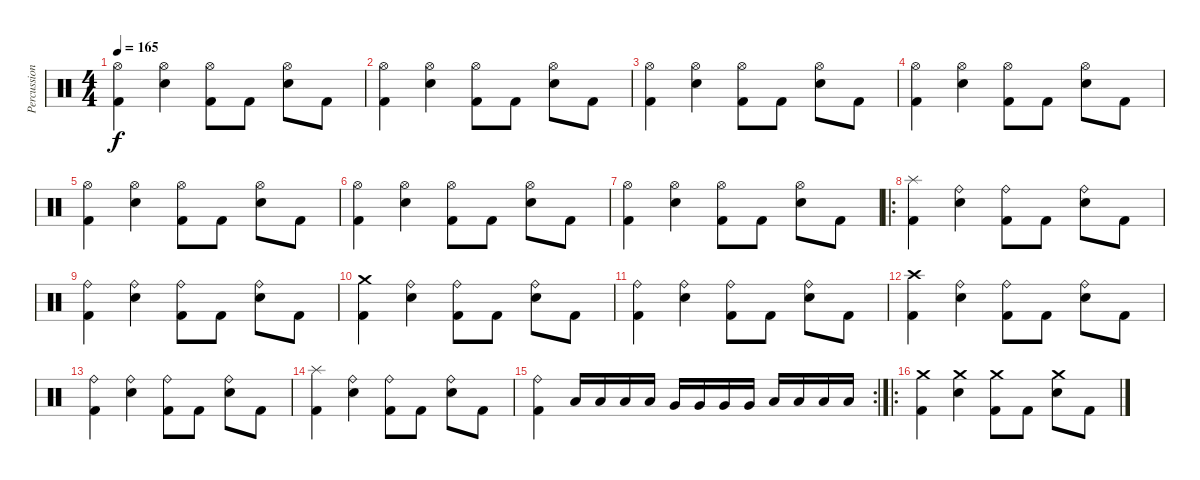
\track ("Percussions" "Percussion") {instrument percussion}
\staff {score}
\articulation defaults
\ts (4 4)
\tempo 165
\clef neutral
\ks c
("Kick (hit) 2" "Hi-Hat (open)").4{dy f} ("Snare (hit) 2" "Hi-Hat (open)").4 ("Kick (hit) 2" "Hi-Hat (open)").8 "Kick (hit) 2".8 ("Snare (hit) 2" "Hi-Hat (open)").8 "Kick (hit) 2".8 |
("Kick (hit) 2" "Hi-Hat (open)").4 ("Snare (hit) 2" "Hi-Hat (open)").4 ("Kick (hit) 2" "Hi-Hat (open)").8 "Kick (hit) 2".8 ("Snare (hit) 2" "Hi-Hat (open)").8 "Kick (hit) 2".8 |
("Kick (hit) 2" "Hi-Hat (open)").4 ("Snare (hit) 2" "Hi-Hat (open)").4 ("Kick (hit) 2" "Hi-Hat (open)").8 "Kick (hit) 2".8 ("Snare (hit) 2" "Hi-Hat (open)").8 "Kick (hit) 2".8 |
("Kick (hit) 2" "Hi-Hat (open)").4 ("Snare (hit) 2" "Hi-Hat (open)").4 ("Kick (hit) 2" "Hi-Hat (open)").8 "Kick (hit) 2".8 ("Snare (hit) 2" "Hi-Hat (open)").8 "Kick (hit) 2".8 |
("Kick (hit) 2" "Hi-Hat (open)").4 ("Snare (hit) 2" "Hi-Hat (open)").4 ("Kick (hit) 2" "Hi-Hat (open)").8 "Kick (hit) 2".8 ("Snare (hit) 2" "Hi-Hat (open)").8 "Kick (hit) 2".8 |
("Kick (hit) 2" "Hi-Hat (open)").4 ("Snare (hit) 2" "Hi-Hat (open)").4 ("Kick (hit) 2" "Hi-Hat (open)").8 "Kick (hit) 2".8 ("Snare (hit) 2" "Hi-Hat (open)").8 "Kick (hit) 2".8 |
("Kick (hit) 2" "Hi-Hat (open)").4 ("Snare (hit) 2" "Hi-Hat (open)").4 ("Kick (hit) 2" "Hi-Hat (open)").8 "Kick (hit) 2".8 ("Snare (hit) 2" "Hi-Hat (open)").8 "Kick (hit) 2".8 |
\ro
("Kick (hit) 2" "Splash (hit)").4 ("Snare (hit) 2" "Ride (bell)").4 ("Kick (hit) 2" "Ride (bell)").8 "Kick (hit) 2".8 ("Snare (hit) 2" "Ride (bell)").8 "Kick (hit) 2".8 |
("Kick (hit) 2" "Ride (bell)").4 ("Snare (hit) 2" "Ride (bell)").4 ("Kick (hit) 2" "Ride (bell)").8 "Kick (hit) 2".8 ("Snare (hit) 2" "Ride (bell)").8 "Kick (hit) 2".8 |
("Kick (hit) 2" "Crash medium (hit)").4 ("Snare (hit) 2" "Ride (bell)").4 ("Kick (hit) 2" "Ride (bell)").8 "Kick (hit) 2".8 ("Snare (hit) 2" "Ride (bell)").8 "Kick (hit) 2".8 |
("Kick (hit) 2" "Ride (bell)").4 ("Snare (hit) 2" "Ride (bell)").4 ("Kick (hit) 2" "Ride (bell)").8 "Kick (hit) 2".8 ("Snare (hit) 2" "Ride (bell)").8 "Kick (hit) 2".8 |
("Kick (hit) 2" "Crash high (hit)").4 ("Snare (hit) 2" "Ride (bell)").4 ("Kick (hit) 2" "Ride (bell)").8 "Kick (hit) 2".8 ("Snare (hit) 2" "Ride (bell)").8 "Kick (hit) 2".8 |
("Kick (hit) 2" "Ride (bell)").4 ("Snare (hit) 2" "Ride (bell)").4 ("Kick (hit) 2" "Ride (bell)").8 "Kick (hit) 2".8 ("Snare (hit) 2" "Ride (bell)").8 "Kick (hit) 2".8 |
("Kick (hit) 2" "Splash (hit)").4 ("Snare (hit) 2" "Ride (bell)").4 ("Kick (hit) 2" "Ride (bell)").8 "Kick (hit) 2".8 ("Snare (hit) 2" "Ride (bell)").8 "Kick (hit) 2".8 |
\rc 2
("Kick (hit) 2" "Ride (bell)").4 "Low Tom (hit)".16 "Low Tom (hit)".16 "Low Tom (hit)".16 "Low Tom (hit)".16 "Very Low Tom (hit)".16 "Very Low Tom (hit)".16 "Very Low Tom (hit)".16 "Very Low Tom (hit)".16 "Low Floor Tom (hit)".16 "Low Floor Tom (hit)".16 "Low Floor Tom (hit)".16 "Low Floor Tom (hit)".16 |
\ro
("Kick (hit) 2" "Crash medium (hit)").4 ("Snare (hit) 2" "Crash medium (hit)").4 ("Kick (hit) 2" "Crash medium (hit)").8 "Kick (hit) 2".8 ("Snare (hit) 2" "Crash medium (hit)").8 "Kick (hit) 2".8
